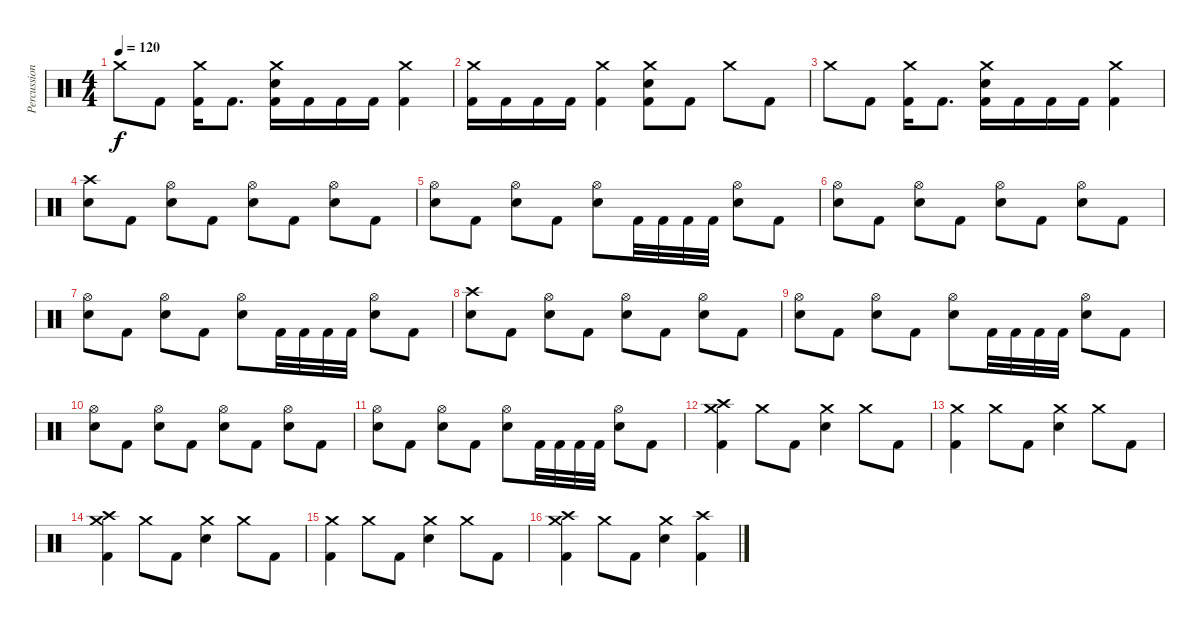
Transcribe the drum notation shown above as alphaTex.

\track ("Percussion" "Percussion") {instrument percussion}
\staff {score}
\articulation defaults
\ts (4 4)
\tempo 120
\clef neutral
\ks c "Crash medium (hit)".8{dy f} "Kick (hit) 2".8
("Crash medium (hit)" "Kick (hit) 2").16 "Kick (hit) 2".8{d} ("Crash medium (hit)" "Electric Snare (hit)" "Kick (hit) 2").16 "Kick (hit) 2".16 "Kick (hit) 2".16 "Kick (hit) 2".16 ("Crash medium (hit)" "Kick (hit) 2").4 |
("Crash medium (hit)" "Kick (hit) 2").16 "Kick (hit) 2".16 "Kick (hit) 2".16 "Kick (hit) 2".16 ("Crash medium (hit)" "Kick (hit) 2").4 ("Crash medium (hit)" "Electric Snare (hit)" "Kick (hit) 2").8 "Kick (hit) 2".8 "Crash medium (hit)".8 "Kick (hit) 2".8 |
"Crash medium (hit)".8 "Kick (hit) 2".8 ("Crash medium (hit)" "Kick (hit) 2").16 "Kick (hit) 2".8{d} ("Crash medium (hit)" "Electric Snare (hit)" "Kick (hit) 2").16 "Kick (hit) 2".16 "Kick (hit) 2".16 "Kick (hit) 2".16 ("Crash medium (hit)" "Kick (hit) 2").4 |
("Crash high (hit)" "Electric Snare (hit)").8 "Kick (hit) 2".8 ("Hi-Hat (open)" "Electric Snare (hit)").8 "Kick (hit) 2".8 ("Hi-Hat (open)" "Electric Snare (hit)").8 "Kick (hit) 2".8 ("Hi-Hat (open)" "Electric Snare (hit)").8 "Kick (hit) 2".8 |
("Hi-Hat (open)" "Electric Snare (hit)").8 "Kick (hit) 2".8 ("Hi-Hat (open)" "Electric Snare (hit)").8 "Kick (hit) 2".8 ("Hi-Hat (open)" "Electric Snare (hit)").8 "Kick (hit) 2".32 "Kick (hit) 2".32 "Kick (hit) 2".32 "Kick (hit) 2".32 ("Hi-Hat (open)" "Electric Snare (hit)").8 "Kick (hit) 2".8 |
("Hi-Hat (open)" "Electric Snare (hit)").8 "Kick (hit) 2".8 ("Hi-Hat (open)" "Electric Snare (hit)").8 "Kick (hit) 2".8 ("Hi-Hat (open)" "Electric Snare (hit)").8 "Kick (hit) 2".8 ("Hi-Hat (open)" "Electric Snare (hit)").8 "Kick (hit) 2".8 |
("Hi-Hat (open)" "Electric Snare (hit)").8 "Kick (hit) 2".8 ("Hi-Hat (open)" "Electric Snare (hit)").8 "Kick (hit) 2".8 ("Hi-Hat (open)" "Electric Snare (hit)").8 "Kick (hit) 2".32 "Kick (hit) 2".32 "Kick (hit) 2".32 "Kick (hit) 2".32 ("Hi-Hat (open)" "Electric Snare (hit)").8 "Kick (hit) 2".8 |
("Crash high (hit)" "Electric Snare (hit)").8 "Kick (hit) 2".8 ("Hi-Hat (open)" "Electric Snare (hit)").8 "Kick (hit) 2".8 ("Hi-Hat (open)" "Electric Snare (hit)").8 "Kick (hit) 2".8 ("Hi-Hat (open)" "Electric Snare (hit)").8 "Kick (hit) 2".8 |
("Hi-Hat (open)" "Electric Snare (hit)").8 "Kick (hit) 2".8 ("Hi-Hat (open)" "Electric Snare (hit)").8 "Kick (hit) 2".8 ("Hi-Hat (open)" "Electric Snare (hit)").8 "Kick (hit) 2".32 "Kick (hit) 2".32 "Kick (hit) 2".32 "Kick (hit) 2".32 ("Hi-Hat (open)" "Electric Snare (hit)").8 "Kick (hit) 2".8 |
("Hi-Hat (open)" "Electric Snare (hit)").8 "Kick (hit) 2".8 ("Hi-Hat (open)" "Electric Snare (hit)").8 "Kick (hit) 2".8 ("Hi-Hat (open)" "Electric Snare (hit)").8 "Kick (hit) 2".8 ("Hi-Hat (open)" "Electric Snare (hit)").8 "Kick (hit) 2".8 |
("Hi-Hat (open)" "Electric Snare (hit)").8 "Kick (hit) 2".8 ("Hi-Hat (open)" "Electric Snare (hit)").8 "Kick (hit) 2".8 ("Hi-Hat (open)" "Electric Snare (hit)").8 "Kick (hit) 2".32 "Kick (hit) 2".32 "Kick (hit) 2".32 "Kick (hit) 2".32 ("Hi-Hat (open)" "Electric Snare (hit)").8 "Kick (hit) 2".8 |
("Crash medium (hit)" "Crash high (hit)" "Kick (hit) 2").4 "Crash medium (hit)".8 "Kick (hit) 2".8 ("Crash medium (hit)" "Electric Snare (hit)").4 "Crash medium (hit)".8 "Kick (hit) 2".8 |
("Crash medium (hit)" "Kick (hit) 2").4 "Crash medium (hit)".8 "Kick (hit) 2".8 ("Crash medium (hit)" "Electric Snare (hit)").4 "Crash medium (hit)".8 "Kick (hit) 2".8 |
("Crash medium (hit)" "Crash high (hit)" "Kick (hit) 2").4 "Crash medium (hit)".8 "Kick (hit) 2".8 ("Crash medium (hit)" "Electric Snare (hit)").4 "Crash medium (hit)".8 "Kick (hit) 2".8 |
("Crash medium (hit)" "Kick (hit) 2").4 "Crash medium (hit)".8 "Kick (hit) 2".8 ("Crash medium (hit)" "Electric Snare (hit)").4 "Crash medium (hit)".8 "Kick (hit) 2".8 |
("Crash medium (hit)" "Crash high (hit)" "Kick (hit) 2").4 "Crash medium (hit)".8 "Kick (hit) 2".8 ("Crash medium (hit)" "Electric Snare (hit)").4 ("Crash high (hit)" "Kick (hit) 2").4
